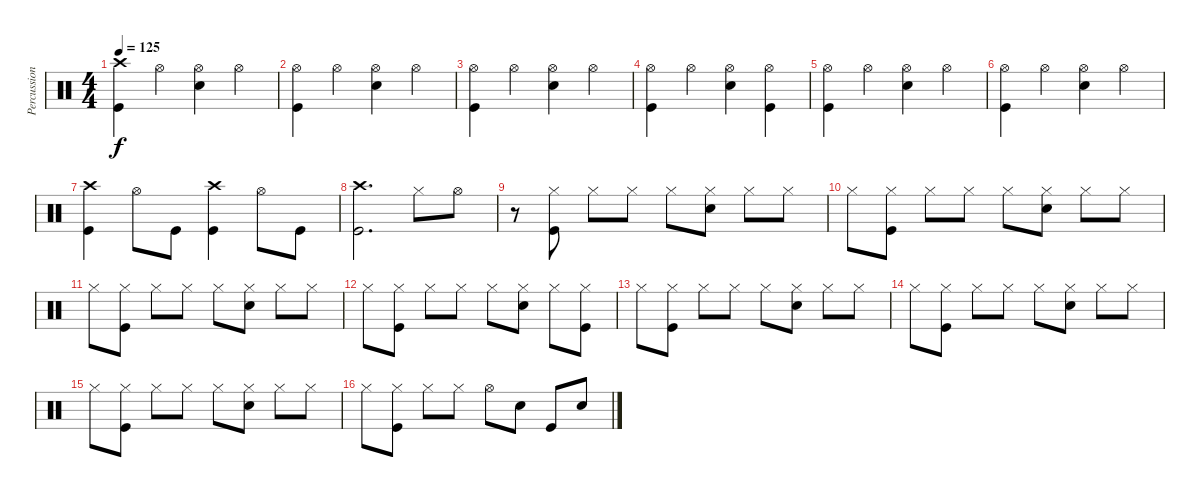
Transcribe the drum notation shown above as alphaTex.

\track ("Percussion" "Percussion") {instrument percussion}
\staff {score}
\articulation defaults
\ts (4 4)
\tempo 125
\clef neutral
\ks c
("Crash high (hit)" "Kick (hit)").4{dy f} "Hi-Hat (open)".4 ("Hi-Hat (open)" "Electric Snare (hit)").4 "Hi-Hat (open)".4 |
("Hi-Hat (open)" "Kick (hit)").4 "Hi-Hat (open)".4 ("Hi-Hat (open)" "Electric Snare (hit)").4 "Hi-Hat (open)".4 |
("Hi-Hat (open)" "Kick (hit)").4 "Hi-Hat (open)".4 ("Hi-Hat (open)" "Electric Snare (hit)").4 "Hi-Hat (open)".4 |
("Hi-Hat (open)" "Kick (hit)").4 "Hi-Hat (open)".4 ("Hi-Hat (open)" "Electric Snare (hit)").4 ("Hi-Hat (open)" "Kick (hit)").4 |
("Hi-Hat (open)" "Kick (hit)").4 "Hi-Hat (open)".4 ("Hi-Hat (open)" "Electric Snare (hit)").4 "Hi-Hat (open)".4 |
("Hi-Hat (open)" "Kick (hit)").4 "Hi-Hat (open)".4 ("Hi-Hat (open)" "Electric Snare (hit)").4 "Hi-Hat (open)".4 |
("Crash high (hit)" "Kick (hit)").4 "Hi-Hat (open)".8 "Kick (hit)".8 ("Crash high (hit)" "Kick (hit)").4 "Hi-Hat (open)".8 "Kick (hit)".8 |
("Crash high (hit)" "Kick (hit)").2{d} "Hi-Hat (closed)".8 "Hi-Hat (open)".8 |
r.8 ("Hi-Hat (closed)" "Kick (hit)").8 "Hi-Hat (closed)".8 "Hi-Hat (closed)".8 "Hi-Hat (closed)".8 ("Hi-Hat (closed)" "Electric Snare (hit)").8 "Hi-Hat (closed)".8 "Hi-Hat (closed)".8 |
"Hi-Hat (closed)".8 ("Hi-Hat (closed)" "Kick (hit)").8 "Hi-Hat (closed)".8 "Hi-Hat (closed)".8 "Hi-Hat (closed)".8 ("Hi-Hat (closed)" "Electric Snare (hit)").8 "Hi-Hat (closed)".8 "Hi-Hat (closed)".8 |
"Hi-Hat (closed)".8 ("Hi-Hat (closed)" "Kick (hit)").8 "Hi-Hat (closed)".8 "Hi-Hat (closed)".8 "Hi-Hat (closed)".8 ("Hi-Hat (closed)" "Electric Snare (hit)").8 "Hi-Hat (closed)".8 "Hi-Hat (closed)".8 |
"Hi-Hat (closed)".8 ("Hi-Hat (closed)" "Kick (hit)").8 "Hi-Hat (closed)".8 "Hi-Hat (closed)".8 "Hi-Hat (closed)".8 ("Hi-Hat (closed)" "Electric Snare (hit)").8 "Hi-Hat (closed)".8 ("Hi-Hat (closed)" "Kick (hit)").8 |
"Hi-Hat (closed)".8 ("Hi-Hat (closed)" "Kick (hit)").8 "Hi-Hat (closed)".8 "Hi-Hat (closed)".8 "Hi-Hat (closed)".8 ("Hi-Hat (closed)" "Electric Snare (hit)").8 "Hi-Hat (closed)".8 "Hi-Hat (closed)".8 |
"Hi-Hat (closed)".8 ("Hi-Hat (closed)" "Kick (hit)").8 "Hi-Hat (closed)".8 "Hi-Hat (closed)".8 "Hi-Hat (closed)".8 ("Hi-Hat (closed)" "Electric Snare (hit)").8 "Hi-Hat (closed)".8 "Hi-Hat (closed)".8 |
"Hi-Hat (closed)".8 ("Hi-Hat (closed)" "Kick (hit)").8 "Hi-Hat (closed)".8 "Hi-Hat (closed)".8 "Hi-Hat (closed)".8 ("Hi-Hat (closed)" "Electric Snare (hit)").8 "Hi-Hat (closed)".8 "Hi-Hat (closed)".8 |
"Hi-Hat (closed)".8 ("Hi-Hat (closed)" "Kick (hit)").8 "Hi-Hat (closed)".8 "Hi-Hat (closed)".8 "Hi-Hat (open)".8 "Electric Snare (hit)".8 "Kick (hit)".8 "Electric Snare (hit)".8
